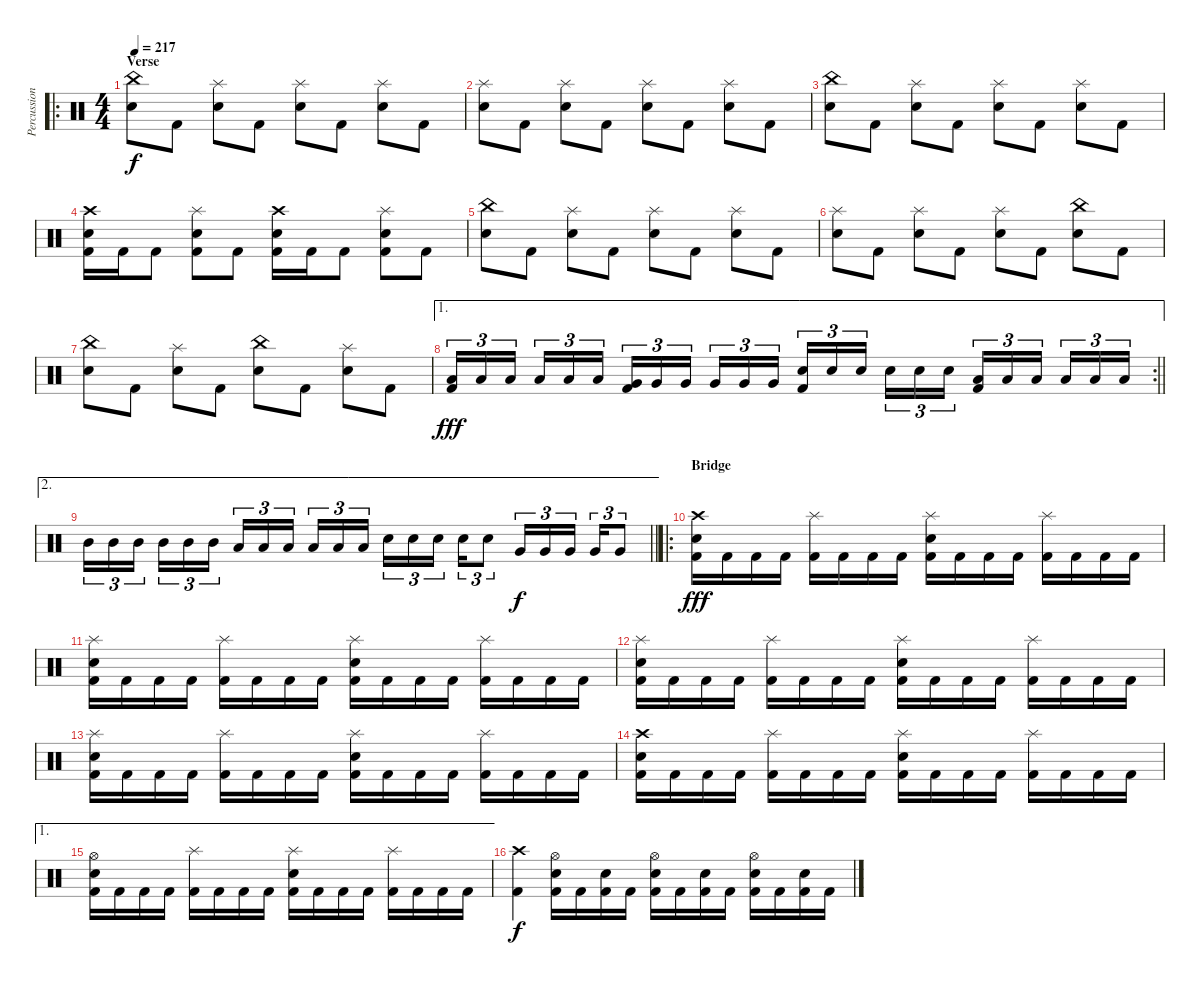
\track ("Percussion" "Percussion") {instrument percussion}
\staff {score}
\articulation defaults
\ro
\ts (4 4)
\section ("" "Verse")
\tempo 217
\clef neutral
\ks c
("China (hit)" "Electric Snare (hit)").8{dy f} "Kick (hit) 2".8 ("Splash (hit)" "Electric Snare (hit)").8 "Kick (hit) 2".8 ("Splash (hit)" "Electric Snare (hit)").8 "Kick (hit) 2".8 ("Splash (hit)" "Electric Snare (hit)").8 "Kick (hit) 2".8 |
("Splash (hit)" "Electric Snare (hit)").8 "Kick (hit) 2".8 ("Splash (hit)" "Electric Snare (hit)").8 "Kick (hit) 2".8 ("Splash (hit)" "Electric Snare (hit)").8 "Kick (hit) 2".8 ("Splash (hit)" "Electric Snare (hit)").8 "Kick (hit) 2".8 |
("China (hit)" "Electric Snare (hit)").8 "Kick (hit) 2".8 ("Splash (hit)" "Electric Snare (hit)").8 "Kick (hit) 2".8 ("Splash (hit)" "Electric Snare (hit)").8 "Kick (hit) 2".8 ("Splash (hit)" "Electric Snare (hit)").8 "Kick (hit) 2".8 |
("Crash high (hit)" "Electric Snare (hit)" "Kick (hit) 2").16 "Kick (hit) 2".16 "Kick (hit) 2".8 ("Splash (hit)" "Electric Snare (hit)" "Kick (hit) 2").8 "Kick (hit) 2".8 ("Crash high (hit)" "Electric Snare (hit)" "Kick (hit) 2").16 "Kick (hit) 2".16 "Kick (hit) 2".8 ("Splash (hit)" "Electric Snare (hit)" "Kick (hit) 2").8 "Kick (hit) 2".8 |
("China (hit)" "Electric Snare (hit)").8 "Kick (hit) 2".8 ("Splash (hit)" "Electric Snare (hit)").8 "Kick (hit) 2".8 ("Splash (hit)" "Electric Snare (hit)").8 "Kick (hit) 2".8 ("Splash (hit)" "Electric Snare (hit)").8 "Kick (hit) 2".8 |
("Splash (hit)" "Electric Snare (hit)").8 "Kick (hit) 2".8 ("Splash (hit)" "Electric Snare (hit)").8 "Kick (hit) 2".8 ("Splash (hit)" "Electric Snare (hit)").8 "Kick (hit) 2".8 ("China (hit)" "Electric Snare (hit)").8 "Kick (hit) 2".8 |
("China (hit)" "Electric Snare (hit)").8 "Kick (hit) 2".8 ("Splash (hit)" "Electric Snare (hit)").8 "Kick (hit) 2".8 ("China (hit)" "Electric Snare (hit)").8 "Kick (hit) 2".8 ("Splash (hit)" "Electric Snare (hit)").8 "Kick (hit) 2".8 |
\ae 1
\rc 2
\barLineRight lightlight
("Low Tom (hit)" "Kick (hit) 2").16{tu (3 2) dy fff} "Low Tom (hit)".16{tu (3 2)} "Low Tom (hit)".16{tu (3 2)} "Low Tom (hit)".16{tu (3 2)} "Low Tom (hit)".16{tu (3 2)} "Low Tom (hit)".16{tu (3 2)} ("Very Low Tom (hit)" "Kick (hit) 2").16{tu (3 2)} "Very Low Tom (hit)".16{tu (3 2)} "Very Low Tom (hit)".16{tu (3 2)} "Very Low Tom (hit)".16{tu (3 2)} "Very Low Tom (hit)".16{tu (3 2)} "Very Low Tom (hit)".16{tu (3 2)} ("Electric Snare (hit)" "Kick (hit) 2").16{tu (3 2)} "Electric Snare (hit)".16{tu (3 2)} "Electric Snare (hit)".16{tu (3 2)} "Electric Snare (hit)".16{tu (3 2)} "Electric Snare (hit)".16{tu (3 2)} "Electric Snare (hit)".16{tu (3 2)} ("Low Tom (hit)" "Kick (hit) 2").16{tu (3 2)} "Low Tom (hit)".16{tu (3 2)} "Low Tom (hit)".16{tu (3 2)} "Low Tom (hit)".16{tu (3 2)} "Low Tom (hit)".16{tu (3 2)} "Low Tom (hit)".16{tu (3 2)} |
\ae 2
\barLineRight lightlight "Mid Tom (hit)".16{tu (3 2)} "Mid Tom (hit)".16{tu (3 2)} "Mid Tom (hit)".16{tu (3 2)} "Mid Tom (hit)".16{tu (3 2)} "Mid Tom (hit)".16{tu (3 2)} "Mid Tom (hit)".16{tu (3 2)} "Low Tom (hit)".16{tu (3 2)} "Low Tom (hit)".16{tu (3 2)} "Low Tom (hit)".16{tu (3 2)} "Low Tom (hit)".16{tu (3 2)} "Low Tom (hit)".16{tu (3 2)} "Low Tom (hit)".16{tu (3 2)} "Electric Snare (hit)".16{tu (3 2)} "Electric Snare (hit)".16{tu (3 2)} "Electric Snare (hit)".16{tu (3 2)} "Electric Snare (hit)".16{tu (3 2)} "Electric Snare (hit)".8{tu (3 2)} "Very Low Tom (hit)".16{tu (3 2) dy f} "Very Low Tom (hit)".16{tu (3 2)} "Very Low Tom (hit)".16{tu (3 2)} "Very Low Tom (hit)".16{tu (3 2)} "Very Low Tom (hit)".8{tu (3 2)}
|
\ro
\section ("" "Bridge")
("Crash high (hit)" "Electric Snare (hit)" "Kick (hit) 2").16{dy fff} "Kick (hit) 2".16 "Kick (hit) 2".16 "Kick (hit) 2".16 ("Splash (hit)" "Kick (hit) 2").16 "Kick (hit) 2".16 "Kick (hit) 2".16 "Kick (hit) 2".16 ("Splash (hit)" "Electric Snare (hit)" "Kick (hit) 2").16 "Kick (hit) 2".16 "Kick (hit) 2".16 "Kick (hit) 2".16 ("Splash (hit)" "Kick (hit) 2").16 "Kick (hit) 2".16 "Kick (hit) 2".16 "Kick (hit) 2".16 |
("Splash (hit)" "Electric Snare (hit)" "Kick (hit) 2").16 "Kick (hit) 2".16 "Kick (hit) 2".16 "Kick (hit) 2".16 ("Splash (hit)" "Kick (hit) 2").16 "Kick (hit) 2".16 "Kick (hit) 2".16 "Kick (hit) 2".16 ("Splash (hit)" "Electric Snare (hit)" "Kick (hit) 2").16 "Kick (hit) 2".16 "Kick (hit) 2".16 "Kick (hit) 2".16 ("Splash (hit)" "Kick (hit) 2").16 "Kick (hit) 2".16 "Kick (hit) 2".16 "Kick (hit) 2".16 |
("Splash (hit)" "Electric Snare (hit)" "Kick (hit) 2").16 "Kick (hit) 2".16 "Kick (hit) 2".16 "Kick (hit) 2".16 ("Splash (hit)" "Kick (hit) 2").16 "Kick (hit) 2".16 "Kick (hit) 2".16 "Kick (hit) 2".16 ("Splash (hit)" "Electric Snare (hit)" "Kick (hit) 2").16 "Kick (hit) 2".16 "Kick (hit) 2".16 "Kick (hit) 2".16 ("Splash (hit)" "Kick (hit) 2").16 "Kick (hit) 2".16 "Kick (hit) 2".16 "Kick (hit) 2".16 |
("Splash (hit)" "Electric Snare (hit)" "Kick (hit) 2").16 "Kick (hit) 2".16 "Kick (hit) 2".16 "Kick (hit) 2".16 ("Splash (hit)" "Kick (hit) 2").16 "Kick (hit) 2".16 "Kick (hit) 2".16 "Kick (hit) 2".16 ("Splash (hit)" "Electric Snare (hit)" "Kick (hit) 2").16 "Kick (hit) 2".16 "Kick (hit) 2".16 "Kick (hit) 2".16 ("Splash (hit)" "Kick (hit) 2").16 "Kick (hit) 2".16 "Kick (hit) 2".16 "Kick (hit) 2".16 |
("Crash high (hit)" "Electric Snare (hit)" "Kick (hit) 2").16 "Kick (hit) 2".16 "Kick (hit) 2".16 "Kick (hit) 2".16 ("Splash (hit)" "Kick (hit) 2").16 "Kick (hit) 2".16 "Kick (hit) 2".16 "Kick (hit) 2".16 ("Splash (hit)" "Electric Snare (hit)" "Kick (hit) 2").16 "Kick (hit) 2".16 "Kick (hit) 2".16 "Kick (hit) 2".16 ("Splash (hit)" "Kick (hit) 2").16 "Kick (hit) 2".16 "Kick (hit) 2".16 "Kick (hit) 2".16 |
\ae 1
("Hi-Hat (open)" "Electric Snare (hit)" "Kick (hit) 2").16 "Kick (hit) 2".16 "Kick (hit) 2".16 "Kick (hit) 2".16 ("Splash (hit)" "Kick (hit) 2").16 "Kick (hit) 2".16 "Kick (hit) 2".16 "Kick (hit) 2".16 ("Splash (hit)" "Electric Snare (hit)" "Kick (hit) 2").16 "Kick (hit) 2".16 "Kick (hit) 2".16 "Kick (hit) 2".16 ("Splash (hit)" "Kick (hit) 2").16 "Kick (hit) 2".16 "Kick (hit) 2".16 "Kick (hit) 2".16 |
("Crash high (hit)" "Kick (hit) 2").4{dy f} ("Hi-Hat (open)" "Electric Snare (hit)" "Kick (hit) 2").16 "Kick (hit) 2".16 ("Electric Snare (hit)" "Kick (hit) 2").16 "Kick (hit) 2".16 ("Hi-Hat (open)" "Electric Snare (hit)" "Kick (hit) 2").16 "Kick (hit) 2".16 ("Electric Snare (hit)" "Kick (hit) 2").16 "Kick (hit) 2".16 ("Hi-Hat (open)" "Electric Snare (hit)" "Kick (hit) 2").16 "Kick (hit) 2".16 ("Electric Snare (hit)" "Kick (hit) 2").16 "Kick (hit) 2".16
